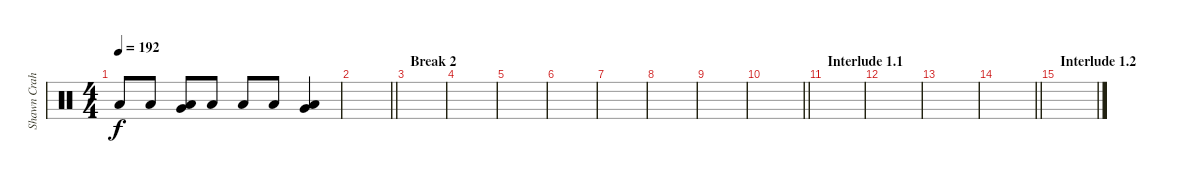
\track ("Shawn Crahan" "Shawn Crah") {instrument percussion}
\staff {score}
\articulation defaults
\ts (4 4)
\tempo 192
\clef neutral
\ks c "Low Floor Tom (hit)".8{dy f} "Low Floor Tom (hit)".8
("Very Low Tom (hit)" "Low Floor Tom (hit)").8 "Low Floor Tom (hit)".8 "Low Floor Tom (hit)".8 "Low Floor Tom (hit)".8 ("Very Low Tom (hit)" "Low Floor Tom (hit)").4 |
\barLineRight lightlight
|
\section ("" "Break 2")
|
|
|
|
|
|
|
\barLineRight lightlight
|
\section ("" "Interlude 1.1")
|
|
|
\barLineRight lightlight
|
\section ("" "Interlude 1.2")
